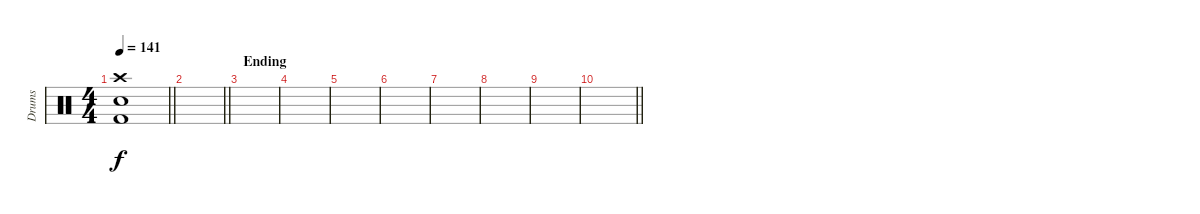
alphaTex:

\track ("Drums" "Drums") {instrument percussion}
\staff {score}
\articulation defaults
\ts (4 4)
\tempo 141
\clef neutral
\barLineRight lightlight
\ks c
("Crash high (hit)" "Snare (hit) 2" "Kick (hit) 2").1{dy f} |
\barLineRight lightlight
|
\section ("" "Ending")
|
|
|
|
|
|
|
\barLineRight lightlight
